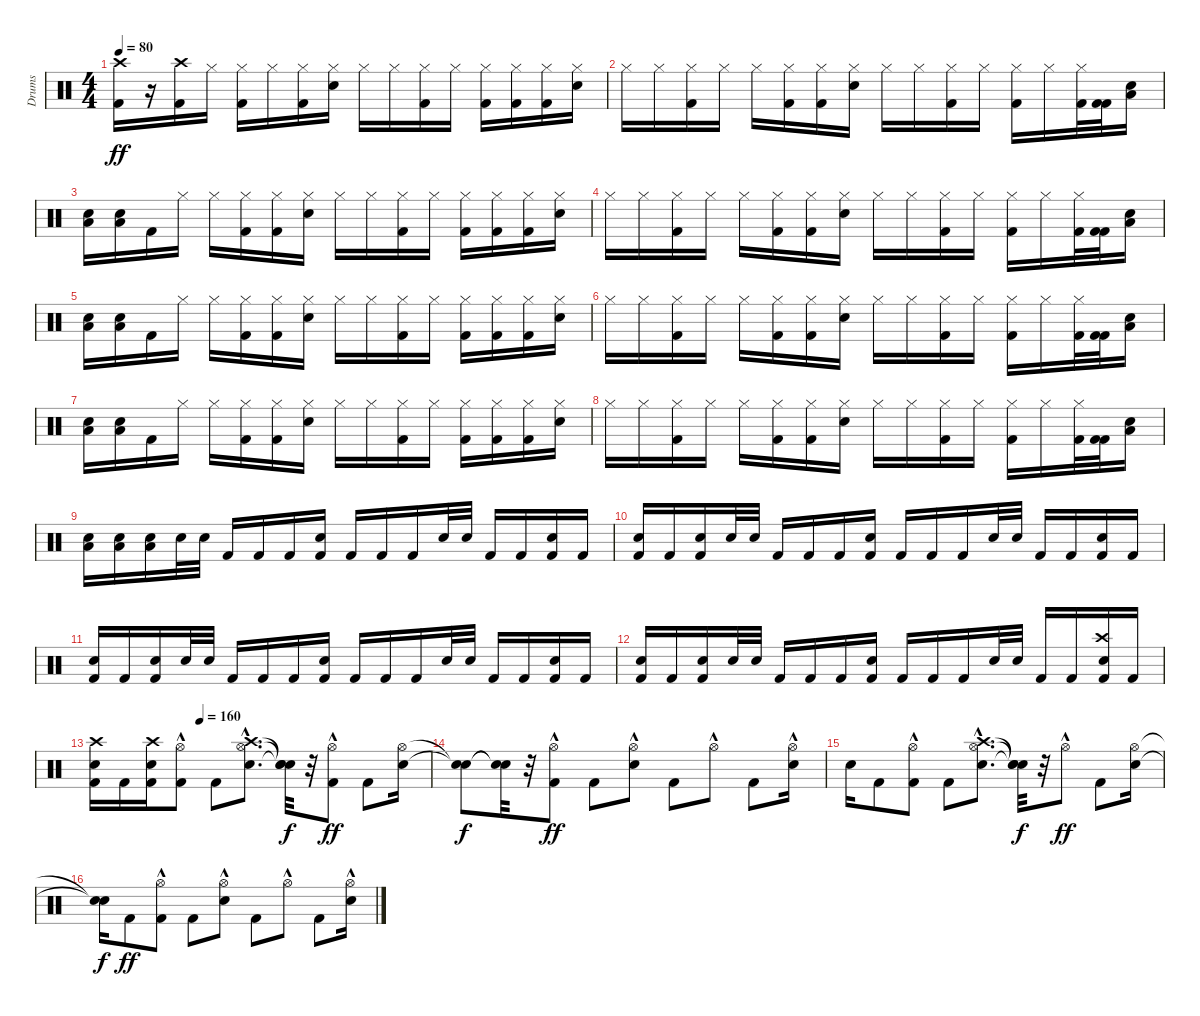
\track ("Drums" "Drums") {instrument percussion}
\staff {score}
\articulation defaults
\ts (4 4)
\tempo 80
\clef neutral
\ks c
("Kick (hit) 2" "Crash high (hit)").16{dy ff} r.16 ("Kick (hit) 2" "Crash high (hit)").16 "Hi-Hat (closed)".16 ("Kick (hit) 2" "Hi-Hat (closed)").16 "Hi-Hat (closed)".16 ("Kick (hit) 2" "Hi-Hat (closed)").16 ("Snare (hit) 2" "Hi-Hat (closed)").16 "Hi-Hat (closed)".16 "Hi-Hat (closed)".16 ("Kick (hit) 2" "Hi-Hat (closed)").16 "Hi-Hat (closed)".16 ("Kick (hit) 2" "Hi-Hat (closed)").16 ("Kick (hit) 2" "Hi-Hat (closed)").16 ("Kick (hit) 2" "Hi-Hat (closed)").16 ("Snare (hit) 2" "Hi-Hat (closed)").16 |
"Hi-Hat (closed)".16 "Hi-Hat (closed)".16 ("Kick (hit) 2" "Hi-Hat (closed)").16 "Hi-Hat (closed)".16 "Hi-Hat (closed)".16 ("Kick (hit) 2" "Hi-Hat (closed)").16 ("Kick (hit) 2" "Hi-Hat (closed)").16 ("Snare (hit) 2" "Hi-Hat (closed)").16 "Hi-Hat (closed)".16 "Hi-Hat (closed)".16 ("Kick (hit) 2" "Hi-Hat (closed)").16 "Hi-Hat (closed)".16 ("Kick (hit) 2" "Hi-Hat (closed)").16 "Hi-Hat (closed)".16 ("Kick (hit) 2" "Hi-Hat (closed)").32 ("Kick (hit) 2" "Kick (hit) 2").32 ("Snare (hit) 2" "Low Floor Tom (hit)").16 |
("Snare (hit) 2" "Low Floor Tom (hit)").16 ("Snare (hit) 2" "Low Floor Tom (hit)").16 "Kick (hit) 2".16 "Hi-Hat (closed)".16 "Hi-Hat (closed)".16 ("Kick (hit) 2" "Hi-Hat (closed)").16 ("Kick (hit) 2" "Hi-Hat (closed)").16 ("Snare (hit) 2" "Hi-Hat (closed)").16 "Hi-Hat (closed)".16 "Hi-Hat (closed)".16 ("Kick (hit) 2" "Hi-Hat (closed)").16 "Hi-Hat (closed)".16 ("Kick (hit) 2" "Hi-Hat (closed)").16 ("Kick (hit) 2" "Hi-Hat (closed)").16 ("Kick (hit) 2" "Hi-Hat (closed)").16 ("Snare (hit) 2" "Hi-Hat (closed)").16 |
"Hi-Hat (closed)".16 "Hi-Hat (closed)".16 ("Kick (hit) 2" "Hi-Hat (closed)").16 "Hi-Hat (closed)".16 "Hi-Hat (closed)".16 ("Kick (hit) 2" "Hi-Hat (closed)").16 ("Kick (hit) 2" "Hi-Hat (closed)").16 ("Snare (hit) 2" "Hi-Hat (closed)").16 "Hi-Hat (closed)".16 "Hi-Hat (closed)".16 ("Kick (hit) 2" "Hi-Hat (closed)").16 "Hi-Hat (closed)".16 ("Kick (hit) 2" "Hi-Hat (closed)").16 "Hi-Hat (closed)".16 ("Kick (hit) 2" "Hi-Hat (closed)").32 ("Kick (hit) 2" "Kick (hit) 2").32 ("Snare (hit) 2" "Low Floor Tom (hit)").16 |
("Snare (hit) 2" "Low Floor Tom (hit)").16 ("Snare (hit) 2" "Low Floor Tom (hit)").16 "Kick (hit) 2".16 "Hi-Hat (closed)".16 "Hi-Hat (closed)".16 ("Kick (hit) 2" "Hi-Hat (closed)").16 ("Kick (hit) 2" "Hi-Hat (closed)").16 ("Snare (hit) 2" "Hi-Hat (closed)").16 "Hi-Hat (closed)".16 "Hi-Hat (closed)".16 ("Kick (hit) 2" "Hi-Hat (closed)").16 "Hi-Hat (closed)".16 ("Kick (hit) 2" "Hi-Hat (closed)").16 ("Kick (hit) 2" "Hi-Hat (closed)").16 ("Kick (hit) 2" "Hi-Hat (closed)").16 ("Snare (hit) 2" "Hi-Hat (closed)").16 |
"Hi-Hat (closed)".16 "Hi-Hat (closed)".16 ("Kick (hit) 2" "Hi-Hat (closed)").16 "Hi-Hat (closed)".16 "Hi-Hat (closed)".16 ("Kick (hit) 2" "Hi-Hat (closed)").16 ("Kick (hit) 2" "Hi-Hat (closed)").16 ("Snare (hit) 2" "Hi-Hat (closed)").16 "Hi-Hat (closed)".16 "Hi-Hat (closed)".16 ("Kick (hit) 2" "Hi-Hat (closed)").16 "Hi-Hat (closed)".16 ("Kick (hit) 2" "Hi-Hat (closed)").16 "Hi-Hat (closed)".16 ("Kick (hit) 2" "Hi-Hat (closed)").32 ("Kick (hit) 2" "Kick (hit) 2").32 ("Snare (hit) 2" "Low Floor Tom (hit)").16 |
("Snare (hit) 2" "Low Floor Tom (hit)").16 ("Snare (hit) 2" "Low Floor Tom (hit)").16 "Kick (hit) 2".16 "Hi-Hat (closed)".16 "Hi-Hat (closed)".16 ("Kick (hit) 2" "Hi-Hat (closed)").16 ("Kick (hit) 2" "Hi-Hat (closed)").16 ("Snare (hit) 2" "Hi-Hat (closed)").16 "Hi-Hat (closed)".16 "Hi-Hat (closed)".16 ("Kick (hit) 2" "Hi-Hat (closed)").16 "Hi-Hat (closed)".16 ("Kick (hit) 2" "Hi-Hat (closed)").16 ("Kick (hit) 2" "Hi-Hat (closed)").16 ("Kick (hit) 2" "Hi-Hat (closed)").16 ("Snare (hit) 2" "Hi-Hat (closed)").16 |
"Hi-Hat (closed)".16 "Hi-Hat (closed)".16 ("Kick (hit) 2" "Hi-Hat (closed)").16 "Hi-Hat (closed)".16 "Hi-Hat (closed)".16 ("Kick (hit) 2" "Hi-Hat (closed)").16 ("Kick (hit) 2" "Hi-Hat (closed)").16 ("Snare (hit) 2" "Hi-Hat (closed)").16 "Hi-Hat (closed)".16 "Hi-Hat (closed)".16 ("Kick (hit) 2" "Hi-Hat (closed)").16 "Hi-Hat (closed)".16 ("Kick (hit) 2" "Hi-Hat (closed)").16 "Hi-Hat (closed)".16 ("Kick (hit) 2" "Hi-Hat (closed)").32 ("Kick (hit) 2" "Kick (hit) 2").32 ("Snare (hit) 2" "Low Floor Tom (hit)").16 |
("Snare (hit) 2" "Low Floor Tom (hit)").16 ("Snare (hit) 2" "Low Floor Tom (hit)").16 ("Snare (hit) 2" "Low Floor Tom (hit)").16 "Snare (hit) 2".32 "Snare (hit) 2".32 "Kick (hit) 2".16 "Kick (hit) 2".16 "Kick (hit) 2".16 ("Kick (hit) 2" "Snare (hit) 2").16 "Kick (hit) 2".16 "Kick (hit) 2".16 "Kick (hit) 2".16 "Snare (hit) 2".32 "Snare (hit) 2".32 "Kick (hit) 2".16 "Kick (hit) 2".16 ("Kick (hit) 2" "Snare (hit) 2").16 "Kick (hit) 2".16 |
("Kick (hit) 2" "Snare (hit) 2").16 "Kick (hit) 2".16 ("Kick (hit) 2" "Snare (hit) 2").16 "Snare (hit) 2".32 "Snare (hit) 2".32 "Kick (hit) 2".16 "Kick (hit) 2".16 "Kick (hit) 2".16 ("Kick (hit) 2" "Snare (hit) 2").16 "Kick (hit) 2".16 "Kick (hit) 2".16 "Kick (hit) 2".16 "Snare (hit) 2".32 "Snare (hit) 2".32 "Kick (hit) 2".16 "Kick (hit) 2".16 ("Kick (hit) 2" "Snare (hit) 2").16 "Kick (hit) 2".16 |
("Kick (hit) 2" "Snare (hit) 2").16 "Kick (hit) 2".16 ("Kick (hit) 2" "Snare (hit) 2").16 "Snare (hit) 2".32 "Snare (hit) 2".32 "Kick (hit) 2".16 "Kick (hit) 2".16 "Kick (hit) 2".16 ("Kick (hit) 2" "Snare (hit) 2").16 "Kick (hit) 2".16 "Kick (hit) 2".16 "Kick (hit) 2".16 "Snare (hit) 2".32 "Snare (hit) 2".32 "Kick (hit) 2".16 "Kick (hit) 2".16 ("Kick (hit) 2" "Snare (hit) 2").16 "Kick (hit) 2".16 |
("Kick (hit) 2" "Snare (hit) 2").16 "Kick (hit) 2".16 ("Kick (hit) 2" "Snare (hit) 2").16 "Snare (hit) 2".32 "Snare (hit) 2".32 "Kick (hit) 2".16 "Kick (hit) 2".16 "Kick (hit) 2".16 ("Kick (hit) 2" "Snare (hit) 2").16 "Kick (hit) 2".16 "Kick (hit) 2".16 "Kick (hit) 2".16 "Snare (hit) 2".32 "Snare (hit) 2".32 "Kick (hit) 2".16 "Kick (hit) 2".16 ("Kick (hit) 2" "Snare (hit) 2" "Crash high (hit)").16 "Kick (hit) 2".16 |
\tempo (160 0.3125)
("Kick (hit) 2" "Snare (hit) 2" "Crash high (hit)").16 "Kick (hit) 2".16 ("Kick (hit) 2" "Snare (hit) 2" "Crash high (hit)").16 ("Kick (hit) 2" "Hi-Hat (open)"{hac}).8 "Kick (hit) 2".8 ("Snare (hit) 2"{hac} "Hi-Hat (open)"{hac} "Crash high (hit)"{hac}).8{d} ("Snare (hit)"{t} "Snare (hit)"{t} "Snare (hit)"{t}).32{dy f} r.32 ("Kick (hit) 2" "Hi-Hat (open)"{hac}).8{dy ff} "Kick (hit) 2".8 ("Snare (hit) 2" "Hi-Hat (open)").16 |
("Snare (hit)"{t} "Snare (hit)"{t}).8{dy f} ("Snare (hit)"{t} "Snare (hit)"{t}).32 r.32 ("Kick (hit) 2" "Hi-Hat (open)"{hac}).8{dy ff} "Kick (hit) 2".8 ("Snare (hit) 2" "Hi-Hat (open)"{hac}).8 "Kick (hit) 2".8 "Hi-Hat (open)"{hac}.8 "Kick (hit) 2".8 ("Snare (hit) 2" "Hi-Hat (open)"{hac}).16 |
"Snare (hit) 2".16 "Kick (hit) 2".8 ("Kick (hit) 2" "Hi-Hat (open)"{hac}).8 "Kick (hit) 2".8 ("Snare (hit) 2"{hac} "Hi-Hat (open)"{hac} "Crash high (hit)"{hac}).8{d} ("Snare (hit)"{t} "Snare (hit)"{t} "Snare (hit)"{t}).32{dy f} r.32 "Hi-Hat (open)"{hac}.8{dy ff} "Kick (hit) 2".8 ("Snare (hit) 2" "Hi-Hat (open)").16 |
("Snare (hit)"{t} "Snare (hit)"{t}).16{dy f} "Kick (hit) 2".8{dy ff} ("Kick (hit) 2" "Hi-Hat (open)"{hac}).8 "Kick (hit) 2".8 ("Snare (hit) 2" "Hi-Hat (open)"{hac}).8 "Kick (hit) 2".8 "Hi-Hat (open)"{hac}.8 "Kick (hit) 2".8 ("Snare (hit) 2" "Hi-Hat (open)"{hac}).16
